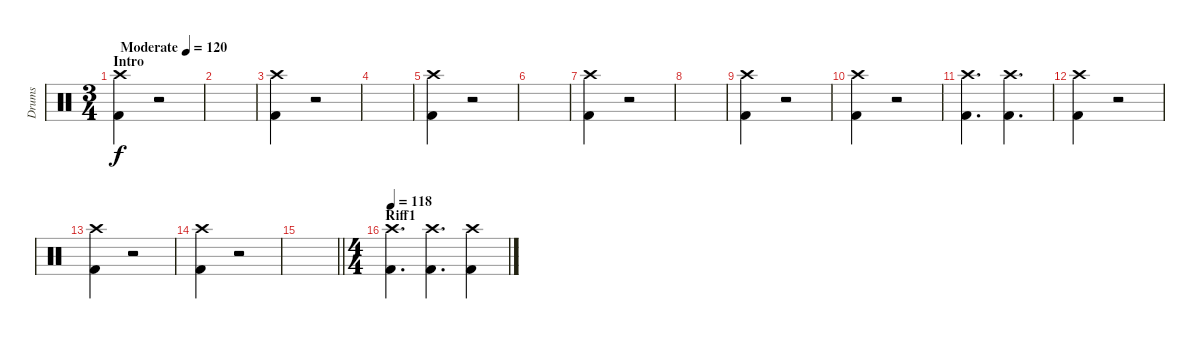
\track ("Drums" "Drums") {instrument percussion}
\staff {score}
\articulation defaults
\ts (3 4)
\section ("" "Intro")
\tempo (120 "Moderate")
\tempo 102
\tempo (120 "Moderate")
\clef neutral
\ks c
("Crash high (hit)" "Kick (hit) 2").4{dy f} r.2 |
|
("Crash high (hit)" "Kick (hit) 2").4 r.2 |
|
("Crash high (hit)" "Kick (hit) 2").4 r.2 |
|
("Crash high (hit)" "Kick (hit) 2").4 r.2 |
|
("Crash high (hit)" "Kick (hit) 2").4 r.2 |
("Crash high (hit)" "Kick (hit) 2").4 r.2 |
("Crash high (hit)" "Kick (hit) 2").4{d} ("Crash high (hit)" "Kick (hit) 2").4{d} |
("Crash high (hit)" "Kick (hit) 2").4 r.2 |
("Crash high (hit)" "Kick (hit) 2").4 r.2 |
("Crash high (hit)" "Kick (hit) 2").4 r.2 |
\barLineRight lightlight
|
\ts (4 4)
\section ("" "Riff1")
\tempo 118
("Crash high (hit)" "Kick (hit) 2").4{d} ("Crash high (hit)" "Kick (hit) 2").4{d} ("Crash high (hit)" "Kick (hit) 2").4
